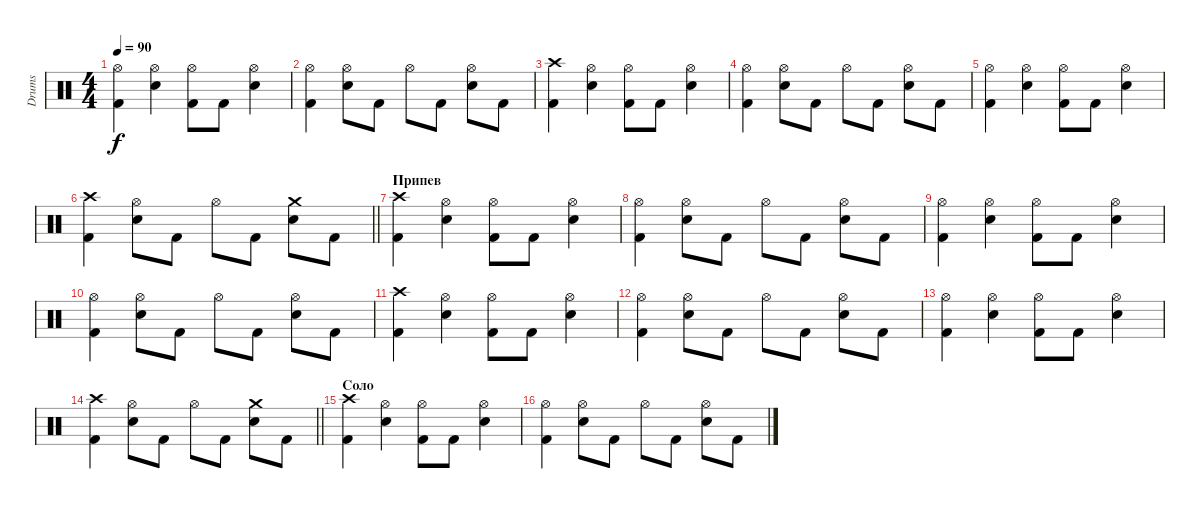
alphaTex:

\track ("Drums" "Drums") {instrument percussion}
\staff {score}
\articulation defaults
\ts (4 4)
\tempo 90
\clef neutral
\ks c
("Hi-Hat (open)" "Kick (hit) 2").4{dy f} ("Hi-Hat (open)" "Electric Snare (hit)").4 ("Hi-Hat (open)" "Kick (hit) 2").8 "Kick (hit) 2".8 ("Hi-Hat (open)" "Electric Snare (hit)").4 |
("Hi-Hat (open)" "Kick (hit) 2").4 ("Hi-Hat (open)" "Electric Snare (hit)").8 "Kick (hit) 2".8 "Hi-Hat (open)".8 "Kick (hit) 2".8 ("Hi-Hat (open)" "Electric Snare (hit)").8 "Kick (hit) 2".8 |
("Crash high (hit)" "Kick (hit) 2").4 ("Hi-Hat (open)" "Electric Snare (hit)").4 ("Hi-Hat (open)" "Kick (hit) 2").8 "Kick (hit) 2".8 ("Hi-Hat (open)" "Electric Snare (hit)").4 |
("Hi-Hat (open)" "Kick (hit) 2").4 ("Hi-Hat (open)" "Electric Snare (hit)").8 "Kick (hit) 2".8 "Hi-Hat (open)".8 "Kick (hit) 2".8 ("Hi-Hat (open)" "Electric Snare (hit)").8 "Kick (hit) 2".8 |
("Hi-Hat (open)" "Kick (hit) 2").4 ("Hi-Hat (open)" "Electric Snare (hit)").4 ("Hi-Hat (open)" "Kick (hit) 2").8 "Kick (hit) 2".8 ("Hi-Hat (open)" "Electric Snare (hit)").4 |
\barLineRight lightlight
("Crash high (hit)" "Kick (hit) 2").4 ("Hi-Hat (open)" "Electric Snare (hit)").8 "Kick (hit) 2".8 "Hi-Hat (open)".8 "Kick (hit) 2".8 ("Crash medium (hit)" "Electric Snare (hit)").8 "Kick (hit) 2".8 |
\section ("" "Припев")
("Crash high (hit)" "Kick (hit) 2").4 ("Hi-Hat (open)" "Electric Snare (hit)").4 ("Hi-Hat (open)" "Kick (hit) 2").8 "Kick (hit) 2".8 ("Hi-Hat (open)" "Electric Snare (hit)").4 |
("Hi-Hat (open)" "Kick (hit) 2").4 ("Hi-Hat (open)" "Electric Snare (hit)").8 "Kick (hit) 2".8 "Hi-Hat (open)".8 "Kick (hit) 2".8 ("Hi-Hat (open)" "Electric Snare (hit)").8 "Kick (hit) 2".8 |
("Hi-Hat (open)" "Kick (hit) 2").4 ("Hi-Hat (open)" "Electric Snare (hit)").4 ("Hi-Hat (open)" "Kick (hit) 2").8 "Kick (hit) 2".8 ("Hi-Hat (open)" "Electric Snare (hit)").4 |
("Hi-Hat (open)" "Kick (hit) 2").4 ("Hi-Hat (open)" "Electric Snare (hit)").8 "Kick (hit) 2".8 "Hi-Hat (open)".8 "Kick (hit) 2".8 ("Hi-Hat (open)" "Electric Snare (hit)").8 "Kick (hit) 2".8 |
("Crash high (hit)" "Kick (hit) 2").4 ("Hi-Hat (open)" "Electric Snare (hit)").4 ("Hi-Hat (open)" "Kick (hit) 2").8 "Kick (hit) 2".8 ("Hi-Hat (open)" "Electric Snare (hit)").4 |
("Hi-Hat (open)" "Kick (hit) 2").4 ("Hi-Hat (open)" "Electric Snare (hit)").8 "Kick (hit) 2".8 "Hi-Hat (open)".8 "Kick (hit) 2".8 ("Hi-Hat (open)" "Electric Snare (hit)").8 "Kick (hit) 2".8 |
("Hi-Hat (open)" "Kick (hit) 2").4 ("Hi-Hat (open)" "Electric Snare (hit)").4 ("Hi-Hat (open)" "Kick (hit) 2").8 "Kick (hit) 2".8 ("Hi-Hat (open)" "Electric Snare (hit)").4 |
\barLineRight lightlight
("Crash high (hit)" "Kick (hit) 2").4 ("Hi-Hat (open)" "Electric Snare (hit)").8 "Kick (hit) 2".8 "Hi-Hat (open)".8 "Kick (hit) 2".8 ("Crash medium (hit)" "Electric Snare (hit)").8 "Kick (hit) 2".8 |
\section ("" "Соло")
("Crash high (hit)" "Kick (hit) 2").4 ("Hi-Hat (open)" "Electric Snare (hit)").4 ("Hi-Hat (open)" "Kick (hit) 2").8 "Kick (hit) 2".8 ("Hi-Hat (open)" "Electric Snare (hit)").4 |
("Hi-Hat (open)" "Kick (hit) 2").4 ("Hi-Hat (open)" "Electric Snare (hit)").8 "Kick (hit) 2".8 "Hi-Hat (open)".8 "Kick (hit) 2".8 ("Hi-Hat (open)" "Electric Snare (hit)").8 "Kick (hit) 2".8
